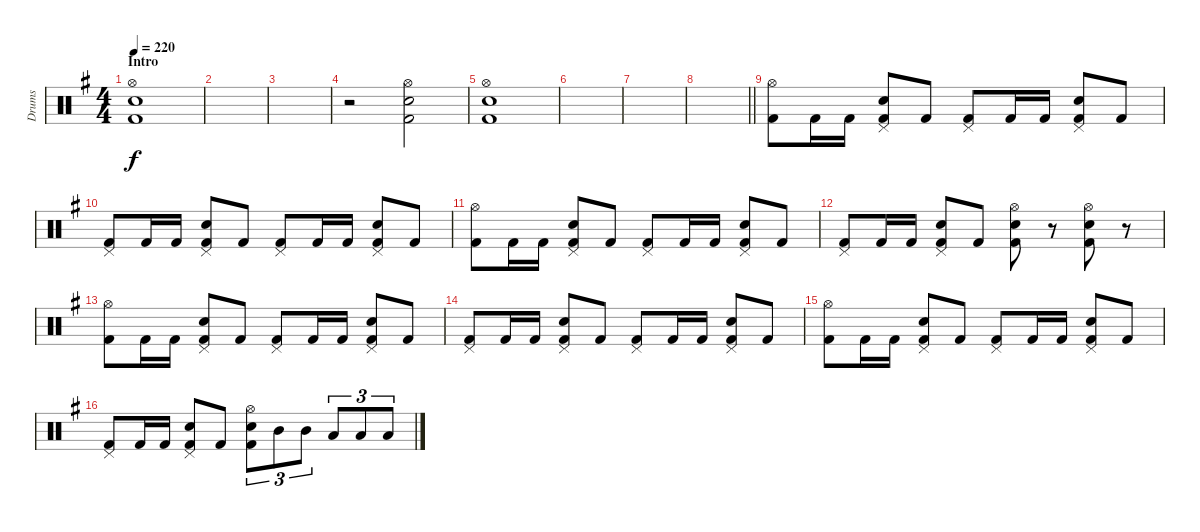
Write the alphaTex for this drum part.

\track ("Drums" "Drums") {instrument percussion}
\staff {score}
\articulation defaults
\ts (4 4)
\section ("" "Intro")
\tempo 220
\clef neutral
\ks g
("Hi-Hat (open)" "Snare (hit) 2" "Kick (hit) 2").1{dy f} |
|
|
r.2 ("Hi-Hat (open)" "Snare (hit) 2" "Kick (hit) 2").2 |
("Hi-Hat (open)" "Snare (hit) 2" "Kick (hit) 2").1 |
|
|
\barLineRight lightlight
|
("Hi-Hat (open)" "Kick (hit) 2").8 "Kick (hit) 2".16 "Kick (hit) 2".16 ("Pedal Hi-Hat (hit)" "Snare (hit) 2" "Kick (hit) 2").8 "Kick (hit) 2".8 ("Pedal Hi-Hat (hit)" "Kick (hit) 2").8 "Kick (hit) 2".16 "Kick (hit) 2".16 ("Pedal Hi-Hat (hit)" "Snare (hit) 2" "Kick (hit) 2").8 "Kick (hit) 2".8 |
("Pedal Hi-Hat (hit)" "Kick (hit) 2").8 "Kick (hit) 2".16 "Kick (hit) 2".16 ("Pedal Hi-Hat (hit)" "Snare (hit) 2" "Kick (hit) 2").8 "Kick (hit) 2".8 ("Pedal Hi-Hat (hit)" "Kick (hit) 2").8 "Kick (hit) 2".16 "Kick (hit) 2".16 ("Pedal Hi-Hat (hit)" "Snare (hit) 2" "Kick (hit) 2").8 "Kick (hit) 2".8 |
("Hi-Hat (open)" "Kick (hit) 2").8 "Kick (hit) 2".16 "Kick (hit) 2".16 ("Pedal Hi-Hat (hit)" "Snare (hit) 2" "Kick (hit) 2").8 "Kick (hit) 2".8 ("Pedal Hi-Hat (hit)" "Kick (hit) 2").8 "Kick (hit) 2".16 "Kick (hit) 2".16 ("Pedal Hi-Hat (hit)" "Snare (hit) 2" "Kick (hit) 2").8 "Kick (hit) 2".8 |
("Pedal Hi-Hat (hit)" "Kick (hit) 2").8 "Kick (hit) 2".16 "Kick (hit) 2".16 ("Pedal Hi-Hat (hit)" "Snare (hit) 2" "Kick (hit) 2").8 "Kick (hit) 2".8 ("Hi-Hat (open)" "Snare (hit) 2" "Kick (hit) 2").8 r.8 ("Hi-Hat (open)" "Snare (hit) 2" "Kick (hit) 2").8 r.8 |
("Hi-Hat (open)" "Kick (hit) 2").8 "Kick (hit) 2".16 "Kick (hit) 2".16 ("Pedal Hi-Hat (hit)" "Snare (hit) 2" "Kick (hit) 2").8 "Kick (hit) 2".8 ("Pedal Hi-Hat (hit)" "Kick (hit) 2").8 "Kick (hit) 2".16 "Kick (hit) 2".16 ("Pedal Hi-Hat (hit)" "Snare (hit) 2" "Kick (hit) 2").8 "Kick (hit) 2".8 |
("Pedal Hi-Hat (hit)" "Kick (hit) 2").8 "Kick (hit) 2".16 "Kick (hit) 2".16 ("Pedal Hi-Hat (hit)" "Snare (hit) 2" "Kick (hit) 2").8 "Kick (hit) 2".8 ("Pedal Hi-Hat (hit)" "Kick (hit) 2").8 "Kick (hit) 2".16 "Kick (hit) 2".16 ("Pedal Hi-Hat (hit)" "Snare (hit) 2" "Kick (hit) 2").8 "Kick (hit) 2".8 |
("Hi-Hat (open)" "Kick (hit) 2").8 "Kick (hit) 2".16 "Kick (hit) 2".16 ("Pedal Hi-Hat (hit)" "Snare (hit) 2" "Kick (hit) 2").8 "Kick (hit) 2".8 ("Pedal Hi-Hat (hit)" "Kick (hit) 2").8 "Kick (hit) 2".16 "Kick (hit) 2".16 ("Pedal Hi-Hat (hit)" "Snare (hit) 2" "Kick (hit) 2").8 "Kick (hit) 2".8 |
("Pedal Hi-Hat (hit)" "Kick (hit) 2").8 "Kick (hit) 2".16 "Kick (hit) 2".16 ("Pedal Hi-Hat (hit)" "Snare (hit) 2" "Kick (hit) 2").8 "Kick (hit) 2".8 ("Hi-Hat (open)" "Snare (hit) 2" "Kick (hit) 2").8{tu (3 2)} "Mid Tom (hit)".8{tu (3 2)} "Mid Tom (hit)".8{tu (3 2)} "Low Tom (hit)".8{tu (3 2)} "Low Tom (hit)".8{tu (3 2)} "Low Tom (hit)".8{tu (3 2)}
